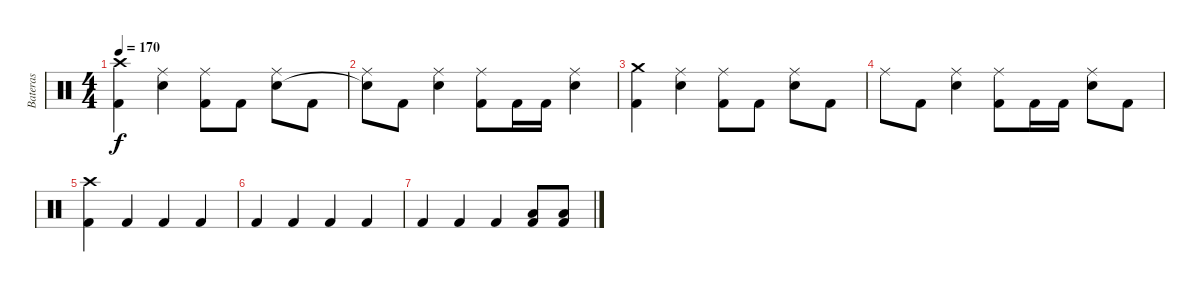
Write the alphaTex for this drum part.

\track ("Bateras" "Bateras") {instrument percussion}
\staff {score}
\articulation defaults
\ts (4 4)
\tempo 170
\clef neutral
\ks c
("Crash high (hit)" "Kick (hit) 2").4{dy f} ("Ride (middle)" "Snare (hit) 2").4 ("Ride (middle)" "Kick (hit) 2").8 "Kick (hit) 2".8 ("Ride (middle)" "Snare (hit) 2").8 "Kick (hit) 2".8 |
("Ride (middle)" "Snare (hit)"{t}).8 "Kick (hit) 2".8 ("Ride (middle)" "Snare (hit) 2").4 ("Ride (middle)" "Kick (hit) 2").8 "Kick (hit) 2".16 "Kick (hit) 2".16 ("Ride (middle)" "Snare (hit) 2").4 |
("Crash medium (hit)" "Kick (hit) 2").4 ("Ride (middle)" "Snare (hit) 2").4 ("Ride (middle)" "Kick (hit) 2").8 "Kick (hit) 2".8 ("Ride (middle)" "Snare (hit) 2").8 "Kick (hit) 2".8 |
"Ride (middle)".8 "Kick (hit) 2".8 ("Ride (middle)" "Snare (hit) 2").4 ("Ride (middle)" "Kick (hit) 2").8 "Kick (hit) 2".16 "Kick (hit) 2".16 ("Ride (middle)" "Snare (hit) 2").8 "Kick (hit) 2".8 |
("Crash high (hit)" "Kick (hit) 2").4 "Kick (hit) 2".4 "Kick (hit) 2".4 "Kick (hit) 2".4 |
"Kick (hit) 2".4 "Kick (hit) 2".4 "Kick (hit) 2".4 "Kick (hit) 2".4 |
"Kick (hit) 2".4 "Kick (hit) 2".4 "Kick (hit) 2".4 ("Low Floor Tom (hit)" "Kick (hit) 2").8 ("Low Floor Tom (hit)" "Kick (hit) 2").8
